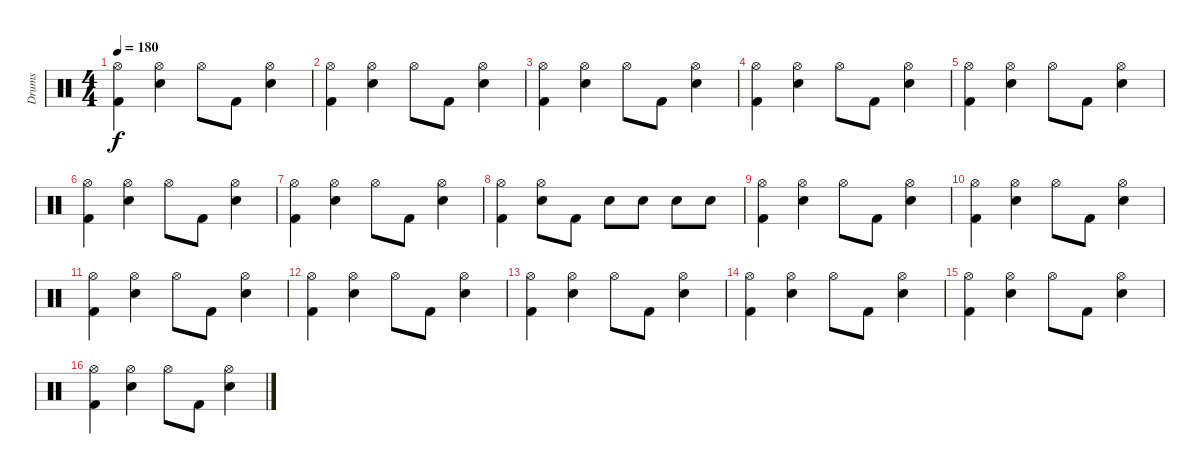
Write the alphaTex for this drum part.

\track ("Drums" "Drums") {instrument percussion}
\staff {score}
\articulation defaults
\ts (4 4)
\tempo 180
\clef neutral
\ks c
("Hi-Hat (open)" "Kick (hit) 2").4{dy f} ("Hi-Hat (open)" "Electric Snare (hit)").4 "Hi-Hat (open)".8 "Kick (hit) 2".8 ("Hi-Hat (open)" "Electric Snare (hit)").4 |
("Hi-Hat (open)" "Kick (hit) 2").4 ("Hi-Hat (open)" "Electric Snare (hit)").4 "Hi-Hat (open)".8 "Kick (hit) 2".8 ("Hi-Hat (open)" "Electric Snare (hit)").4 |
("Hi-Hat (open)" "Kick (hit) 2").4 ("Hi-Hat (open)" "Electric Snare (hit)").4 "Hi-Hat (open)".8 "Kick (hit) 2".8 ("Hi-Hat (open)" "Electric Snare (hit)").4 |
("Hi-Hat (open)" "Kick (hit) 2").4 ("Hi-Hat (open)" "Electric Snare (hit)").4 "Hi-Hat (open)".8 "Kick (hit) 2".8 ("Hi-Hat (open)" "Electric Snare (hit)").4 |
("Hi-Hat (open)" "Kick (hit) 2").4 ("Hi-Hat (open)" "Electric Snare (hit)").4 "Hi-Hat (open)".8 "Kick (hit) 2".8 ("Hi-Hat (open)" "Electric Snare (hit)").4 |
("Hi-Hat (open)" "Kick (hit) 2").4 ("Hi-Hat (open)" "Electric Snare (hit)").4 "Hi-Hat (open)".8 "Kick (hit) 2".8 ("Hi-Hat (open)" "Electric Snare (hit)").4 |
("Hi-Hat (open)" "Kick (hit) 2").4 ("Hi-Hat (open)" "Electric Snare (hit)").4 "Hi-Hat (open)".8 "Kick (hit) 2".8 ("Hi-Hat (open)" "Electric Snare (hit)").4 |
("Hi-Hat (open)" "Kick (hit) 2").4 ("Hi-Hat (open)" "Electric Snare (hit)").8 "Kick (hit) 2".8 "Electric Snare (hit)".8 "Electric Snare (hit)".8 "Electric Snare (hit)".8 "Electric Snare (hit)".8 |
("Hi-Hat (open)" "Kick (hit) 2").4 ("Hi-Hat (open)" "Electric Snare (hit)").4 "Hi-Hat (open)".8 "Kick (hit) 2".8 ("Hi-Hat (open)" "Electric Snare (hit)").4 |
("Hi-Hat (open)" "Kick (hit) 2").4 ("Hi-Hat (open)" "Electric Snare (hit)").4 "Hi-Hat (open)".8 "Kick (hit) 2".8 ("Hi-Hat (open)" "Electric Snare (hit)").4 |
("Hi-Hat (open)" "Kick (hit) 2").4 ("Hi-Hat (open)" "Electric Snare (hit)").4 "Hi-Hat (open)".8 "Kick (hit) 2".8 ("Hi-Hat (open)" "Electric Snare (hit)").4 |
("Hi-Hat (open)" "Kick (hit) 2").4 ("Hi-Hat (open)" "Electric Snare (hit)").4 "Hi-Hat (open)".8 "Kick (hit) 2".8 ("Hi-Hat (open)" "Electric Snare (hit)").4 |
("Hi-Hat (open)" "Kick (hit) 2").4 ("Hi-Hat (open)" "Electric Snare (hit)").4 "Hi-Hat (open)".8 "Kick (hit) 2".8 ("Hi-Hat (open)" "Electric Snare (hit)").4 |
("Hi-Hat (open)" "Kick (hit) 2").4 ("Hi-Hat (open)" "Electric Snare (hit)").4 "Hi-Hat (open)".8 "Kick (hit) 2".8 ("Hi-Hat (open)" "Electric Snare (hit)").4 |
("Hi-Hat (open)" "Kick (hit) 2").4 ("Hi-Hat (open)" "Electric Snare (hit)").4 "Hi-Hat (open)".8 "Kick (hit) 2".8 ("Hi-Hat (open)" "Electric Snare (hit)").4 |
("Hi-Hat (open)" "Kick (hit) 2").4 ("Hi-Hat (open)" "Electric Snare (hit)").4 "Hi-Hat (open)".8 "Kick (hit) 2".8 ("Hi-Hat (open)" "Electric Snare (hit)").4
